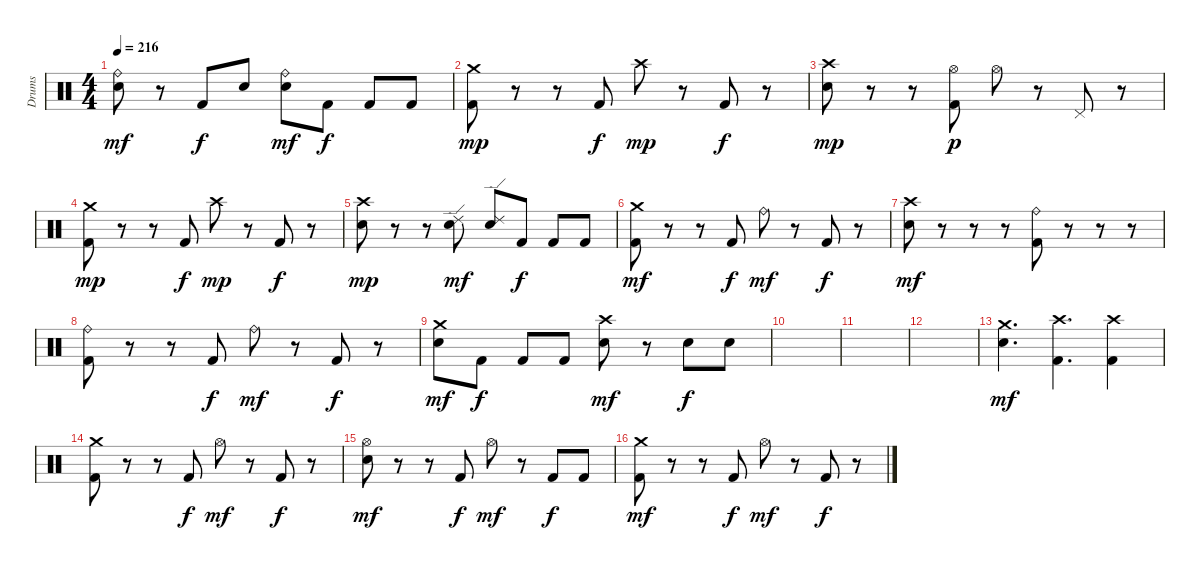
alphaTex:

\track ("Drums" "Drums") {instrument percussion}
\staff {score}
\articulation defaults
\ts (4 4)
\tempo 216
\clef neutral
\ks c
("Snare (hit) 2" "Ride (bell)").8{dy mf} r.8 "Kick (hit) 2".8{dy f} "Snare (hit) 2".8 ("Snare (hit) 2" "Ride (bell)").8{dy mf} "Kick (hit) 2".8{dy f} "Kick (hit) 2".8 "Kick (hit) 2".8 |
("Kick (hit) 2" "Crash medium (hit)").8{dy mp} r.8 r.8 "Kick (hit) 2".8{dy f} "Crash high (hit)".8{dy mp} r.8 "Kick (hit) 2".8{dy f} r.8 |
("Snare (hit) 2" "Crash high (hit)").8{dy mp} r.8 r.8 ("Kick (hit) 2" "Hi-Hat (open)").8{dy p} "Hi-Hat (open)".8 r.8 "Pedal Hi-Hat (hit)".8 r.8 |
("Kick (hit) 2" "Crash medium (hit)").8{dy mp} r.8 r.8 "Kick (hit) 2".8{dy f} "Crash high (hit)".8{dy mp} r.8 "Kick (hit) 2".8{dy f} r.8 |
("Snare (hit) 2" "Crash high (hit)").8{dy mp} r.8 r.8 ("Snare (hit) 2" "Ride (edge) 2").8{dy mf} ("Snare (hit) 2" "Ride (edge) 2").8 "Kick (hit) 2".8{dy f} "Kick (hit) 2".8 "Kick (hit) 2".8 |
("Kick (hit) 2" "Crash medium (hit)").8{dy mf} r.8 r.8 "Kick (hit) 2".8{dy f} "Ride (bell)".8{dy mf} r.8 "Kick (hit) 2".8{dy f} r.8 |
("Snare (hit) 2" "Crash high (hit)").8{dy mf} r.8 r.8 r.8 ("Kick (hit) 2" "Ride (bell)").8 r.8 r.8 r.8 |
("Kick (hit) 2" "Ride (bell)").8 r.8 r.8 "Kick (hit) 2".8{dy f} "Ride (bell)".8{dy mf} r.8 "Kick (hit) 2".8{dy f} r.8 |
("Snare (hit) 2" "Crash medium (hit)").8{dy mf} "Kick (hit) 2".8{dy f} "Kick (hit) 2".8 "Kick (hit) 2".8 ("Snare (hit) 2" "Crash high (hit)").8{dy mf} r.8 "Snare (hit) 2".8{dy f} "Snare (hit) 2".8 |
|
|
|
("Snare (hit) 2" "Crash medium (hit)").4{d dy mf} ("Kick (hit) 2" "Crash high (hit)").4{d} ("Kick (hit) 2" "Crash high (hit)").4 |
("Kick (hit) 2" "Crash medium (hit)").8 r.8 r.8 "Kick (hit) 2".8{dy f} "Hi-Hat (open)".8{dy mf} r.8 "Kick (hit) 2".8{dy f} r.8 |
("Snare (hit) 2" "Hi-Hat (open)").8{dy mf} r.8 r.8 "Kick (hit) 2".8{dy f} "Hi-Hat (open)".8{dy mf} r.8 "Kick (hit) 2".8{dy f} "Kick (hit) 2".8 |
("Kick (hit) 2" "Crash medium (hit)").8{dy mf} r.8 r.8 "Kick (hit) 2".8{dy f} "Hi-Hat (open)".8{dy mf} r.8 "Kick (hit) 2".8{dy f} r.8
